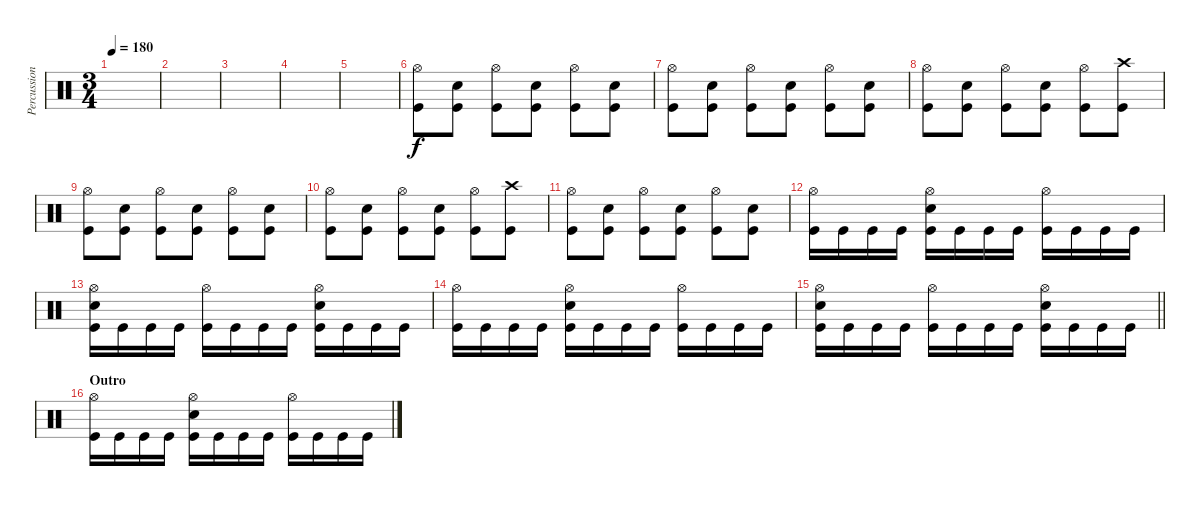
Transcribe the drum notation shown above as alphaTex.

\track ("Percussion" "Percussion") {instrument percussion}
\staff {score}
\articulation defaults
\ts (3 4)
\tempo 180
\clef neutral
\ks c
|
|
|
|
|
("Hi-Hat (open)" "Kick (hit)").8 ("Electric Snare (hit)" "Kick (hit)").8 ("Hi-Hat (open)" "Kick (hit)").8 ("Electric Snare (hit)" "Kick (hit)").8 ("Hi-Hat (open)" "Kick (hit)").8 ("Electric Snare (hit)" "Kick (hit)").8 |
("Hi-Hat (open)" "Kick (hit)").8 ("Electric Snare (hit)" "Kick (hit)").8 ("Hi-Hat (open)" "Kick (hit)").8 ("Electric Snare (hit)" "Kick (hit)").8 ("Hi-Hat (open)" "Kick (hit)").8 ("Electric Snare (hit)" "Kick (hit)").8 |
("Hi-Hat (open)" "Kick (hit)").8 ("Electric Snare (hit)" "Kick (hit)").8 ("Hi-Hat (open)" "Kick (hit)").8 ("Electric Snare (hit)" "Kick (hit)").8 ("Hi-Hat (open)" "Kick (hit)").8 ("Crash high (hit)" "Kick (hit)").8 |
("Hi-Hat (open)" "Kick (hit)").8 ("Electric Snare (hit)" "Kick (hit)").8 ("Hi-Hat (open)" "Kick (hit)").8 ("Electric Snare (hit)" "Kick (hit)").8 ("Hi-Hat (open)" "Kick (hit)").8 ("Electric Snare (hit)" "Kick (hit)").8 |
("Hi-Hat (open)" "Kick (hit)").8 ("Electric Snare (hit)" "Kick (hit)").8 ("Hi-Hat (open)" "Kick (hit)").8 ("Electric Snare (hit)" "Kick (hit)").8 ("Hi-Hat (open)" "Kick (hit)").8 ("Crash high (hit)" "Kick (hit)").8 |
("Hi-Hat (open)" "Kick (hit)").8 ("Electric Snare (hit)" "Kick (hit)").8 ("Hi-Hat (open)" "Kick (hit)").8 ("Electric Snare (hit)" "Kick (hit)").8 ("Hi-Hat (open)" "Kick (hit)").8 ("Electric Snare (hit)" "Kick (hit)").8 |
("Hi-Hat (open)" "Kick (hit)").16 "Kick (hit)".16 "Kick (hit)".16 "Kick (hit)".16 ("Electric Snare (hit)" "Hi-Hat (open)" "Kick (hit)").16 "Kick (hit)".16 "Kick (hit)".16 "Kick (hit)".16 ("Hi-Hat (open)" "Kick (hit)").16 "Kick (hit)".16 "Kick (hit)".16 "Kick (hit)".16 |
("Electric Snare (hit)" "Hi-Hat (open)" "Kick (hit)").16 "Kick (hit)".16 "Kick (hit)".16 "Kick (hit)".16 ("Hi-Hat (open)" "Kick (hit)").16 "Kick (hit)".16 "Kick (hit)".16 "Kick (hit)".16 ("Electric Snare (hit)" "Hi-Hat (open)" "Kick (hit)").16 "Kick (hit)".16 "Kick (hit)".16 "Kick (hit)".16 |
("Hi-Hat (open)" "Kick (hit)").16 "Kick (hit)".16 "Kick (hit)".16 "Kick (hit)".16 ("Electric Snare (hit)" "Hi-Hat (open)" "Kick (hit)").16 "Kick (hit)".16 "Kick (hit)".16 "Kick (hit)".16 ("Hi-Hat (open)" "Kick (hit)").16 "Kick (hit)".16 "Kick (hit)".16 "Kick (hit)".16 |
\barLineRight lightlight
("Electric Snare (hit)" "Hi-Hat (open)" "Kick (hit)").16 "Kick (hit)".16 "Kick (hit)".16 "Kick (hit)".16 ("Hi-Hat (open)" "Kick (hit)").16 "Kick (hit)".16 "Kick (hit)".16 "Kick (hit)".16 ("Electric Snare (hit)" "Hi-Hat (open)" "Kick (hit)").16 "Kick (hit)".16 "Kick (hit)".16 "Kick (hit)".16 |
\section ("" "Outro")
("Hi-Hat (open)" "Kick (hit)").16 "Kick (hit)".16 "Kick (hit)".16 "Kick (hit)".16 ("Electric Snare (hit)" "Hi-Hat (open)" "Kick (hit)").16 "Kick (hit)".16 "Kick (hit)".16 "Kick (hit)".16 ("Hi-Hat (open)" "Kick (hit)").16 "Kick (hit)".16 "Kick (hit)".16 "Kick (hit)".16
